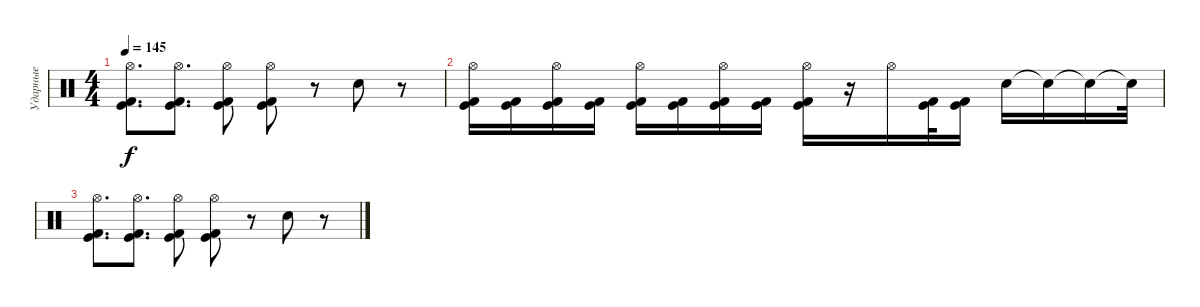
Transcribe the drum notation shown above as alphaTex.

\track ("Ударные" "Ударные") {instrument percussion}
\staff {score}
\articulation defaults
\ts (4 4)
\tempo 145
\clef neutral
\ks c
("Hi-Hat (open)" "Kick (hit) 2" "Kick (hit)").8{d dy f} ("Hi-Hat (open)" "Kick (hit) 2" "Kick (hit)").8{d} ("Hi-Hat (open)" "Kick (hit) 2" "Kick (hit)").8 ("Hi-Hat (open)" "Kick (hit) 2" "Kick (hit)").8 r.8 "Electric Snare (hit)".8 r.8 |
("Hi-Hat (open)" "Kick (hit) 2" "Kick (hit)").16 ("Kick (hit) 2" "Kick (hit)").16 ("Hi-Hat (open)" "Kick (hit) 2" "Kick (hit)").16 ("Kick (hit) 2" "Kick (hit)").16 ("Hi-Hat (open)" "Kick (hit) 2" "Kick (hit)").16 ("Kick (hit) 2" "Kick (hit)").16 ("Hi-Hat (open)" "Kick (hit) 2" "Kick (hit)").16 ("Kick (hit) 2" "Kick (hit)").16 ("Hi-Hat (open)" "Kick (hit) 2" "Kick (hit)").16 r.16 "Hi-Hat (open)".16 ("Kick (hit) 2" "Kick (hit)").32 ("Kick (hit) 2" "Kick (hit)").16 "Electric Snare (hit)".16 "Electric Snare (hit)"{t}.16 "Electric Snare (hit)"{t}.16 "Electric Snare (hit)"{t}.32 |
("Hi-Hat (open)" "Kick (hit) 2" "Kick (hit)").8{d} ("Hi-Hat (open)" "Kick (hit) 2" "Kick (hit)").8{d} ("Hi-Hat (open)" "Kick (hit) 2" "Kick (hit)").8 ("Hi-Hat (open)" "Kick (hit) 2" "Kick (hit)").8 r.8 "Electric Snare (hit)".8 r.8
